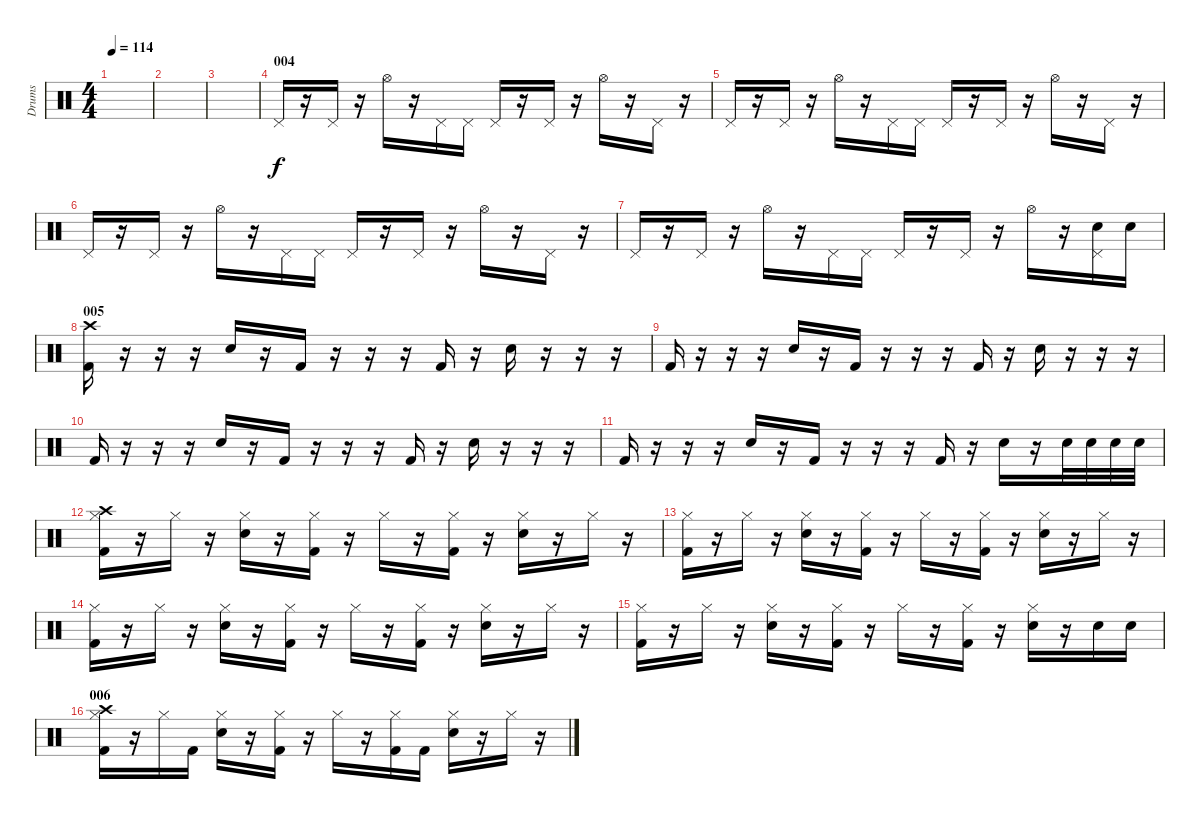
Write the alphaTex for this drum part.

\track ("Drums" "Drums") {instrument percussion}
\staff {score}
\articulation defaults
\ts (4 4)
\tempo 114
\clef neutral
\ks c
|
|
|
\section ("" "004")
"Pedal Hi-Hat (hit)".16 r.16 "Pedal Hi-Hat (hit)".16 r.16 "Hi-Hat (open)".16 r.16 "Pedal Hi-Hat (hit)".16 "Pedal Hi-Hat (hit)".16 "Pedal Hi-Hat (hit)".16 r.16 "Pedal Hi-Hat (hit)".16 r.16 "Hi-Hat (open)".16 r.16 "Pedal Hi-Hat (hit)".16 r.16 |
"Pedal Hi-Hat (hit)".16 r.16 "Pedal Hi-Hat (hit)".16 r.16 "Hi-Hat (open)".16 r.16 "Pedal Hi-Hat (hit)".16 "Pedal Hi-Hat (hit)".16 "Pedal Hi-Hat (hit)".16 r.16 "Pedal Hi-Hat (hit)".16 r.16 "Hi-Hat (open)".16 r.16 "Pedal Hi-Hat (hit)".16 r.16 |
"Pedal Hi-Hat (hit)".16 r.16 "Pedal Hi-Hat (hit)".16 r.16 "Hi-Hat (open)".16 r.16 "Pedal Hi-Hat (hit)".16 "Pedal Hi-Hat (hit)".16 "Pedal Hi-Hat (hit)".16 r.16 "Pedal Hi-Hat (hit)".16 r.16 "Hi-Hat (open)".16 r.16 "Pedal Hi-Hat (hit)".16 r.16 |
"Pedal Hi-Hat (hit)".16 r.16 "Pedal Hi-Hat (hit)".16 r.16 "Hi-Hat (open)".16 r.16 "Pedal Hi-Hat (hit)".16 "Pedal Hi-Hat (hit)".16 "Pedal Hi-Hat (hit)".16 r.16 "Pedal Hi-Hat (hit)".16 r.16 "Hi-Hat (open)".16 r.16 ("Pedal Hi-Hat (hit)" "Electric Snare (hit)").16 "Electric Snare (hit)".16 |
\section ("" "005")
("Kick (hit) 2" "Crash high (hit)").16 r.16 r.16 r.16 "Electric Snare (hit)".16 r.16 "Kick (hit) 2".16 r.16 r.16 r.16 "Kick (hit) 2".16 r.16 "Electric Snare (hit)".16 r.16 r.16 r.16 |
"Kick (hit) 2".16 r.16 r.16 r.16 "Electric Snare (hit)".16 r.16 "Kick (hit) 2".16 r.16 r.16 r.16 "Kick (hit) 2".16 r.16 "Electric Snare (hit)".16 r.16 r.16 r.16 |
"Kick (hit) 2".16 r.16 r.16 r.16 "Electric Snare (hit)".16 r.16 "Kick (hit) 2".16 r.16 r.16 r.16 "Kick (hit) 2".16 r.16 "Electric Snare (hit)".16 r.16 r.16 r.16 |
"Kick (hit) 2".16 r.16 r.16 r.16 "Electric Snare (hit)".16 r.16 "Kick (hit) 2".16 r.16 r.16 r.16 "Kick (hit) 2".16 r.16 "Electric Snare (hit)".16 r.16 "Electric Snare (hit)".32 "Electric Snare (hit)".32 "Electric Snare (hit)".32 "Electric Snare (hit)".32 |
("Kick (hit) 2" "Hi-Hat (closed)" "Crash high (hit)").16 r.16 "Hi-Hat (closed)".16 r.16 ("Electric Snare (hit)" "Hi-Hat (closed)").16 r.16 ("Kick (hit) 2" "Hi-Hat (closed)").16 r.16 "Hi-Hat (closed)".16 r.16 ("Kick (hit) 2" "Hi-Hat (closed)").16 r.16 ("Electric Snare (hit)" "Hi-Hat (closed)").16 r.16 "Hi-Hat (closed)".16 r.16 |
("Kick (hit) 2" "Hi-Hat (closed)").16 r.16 "Hi-Hat (closed)".16 r.16 ("Electric Snare (hit)" "Hi-Hat (closed)").16 r.16 ("Kick (hit) 2" "Hi-Hat (closed)").16 r.16 "Hi-Hat (closed)".16 r.16 ("Kick (hit) 2" "Hi-Hat (closed)").16 r.16 ("Electric Snare (hit)" "Hi-Hat (closed)").16 r.16 "Hi-Hat (closed)".16 r.16 |
("Kick (hit) 2" "Hi-Hat (closed)").16 r.16 "Hi-Hat (closed)".16 r.16 ("Electric Snare (hit)" "Hi-Hat (closed)").16 r.16 ("Kick (hit) 2" "Hi-Hat (closed)").16 r.16 "Hi-Hat (closed)".16 r.16 ("Kick (hit) 2" "Hi-Hat (closed)").16 r.16 ("Electric Snare (hit)" "Hi-Hat (closed)").16 r.16 "Hi-Hat (closed)".16 r.16 |
("Kick (hit) 2" "Hi-Hat (closed)").16 r.16 "Hi-Hat (closed)".16 r.16 ("Electric Snare (hit)" "Hi-Hat (closed)").16 r.16 ("Kick (hit) 2" "Hi-Hat (closed)").16 r.16 "Hi-Hat (closed)".16 r.16 ("Kick (hit) 2" "Hi-Hat (closed)").16 r.16 ("Electric Snare (hit)" "Hi-Hat (closed)").16 r.16 "Electric Snare (hit)".16 "Electric Snare (hit)".16 |
\section ("" "006")
("Kick (hit) 2" "Hi-Hat (closed)" "Crash high (hit)").16 r.16 "Hi-Hat (closed)".16 "Kick (hit) 2".16 ("Snare (hit) 2" "Hi-Hat (closed)").16 r.16 ("Kick (hit) 2" "Hi-Hat (closed)").16 r.16 "Hi-Hat (closed)".16 r.16 ("Kick (hit) 2" "Hi-Hat (closed)").16 "Kick (hit) 2".16 ("Snare (hit) 2" "Hi-Hat (closed)").16 r.16 "Hi-Hat (closed)".16 r.16
